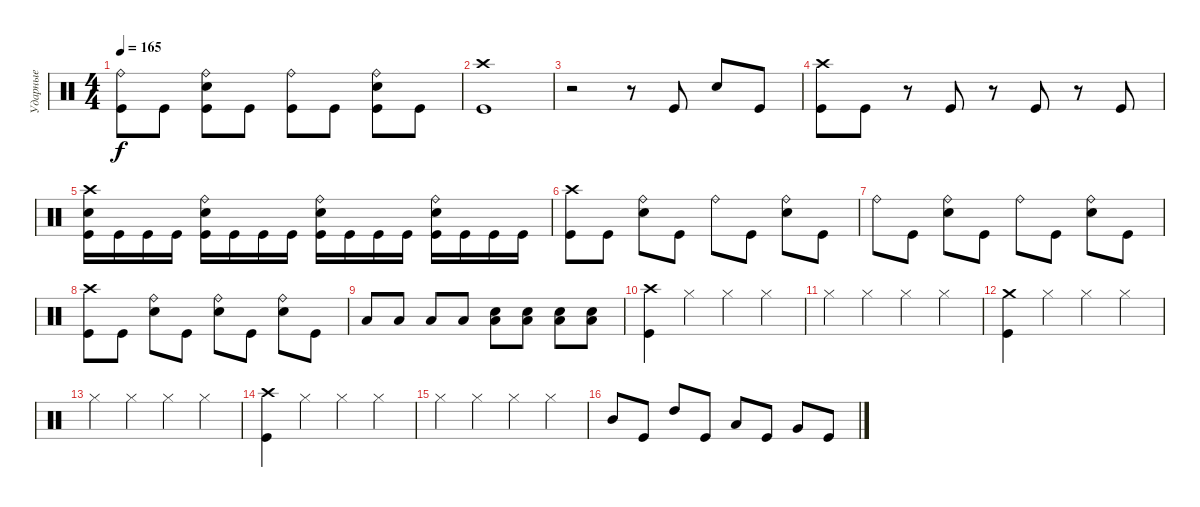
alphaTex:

\track ("Ударные" "Ударные") {instrument percussion}
\staff {score}
\articulation defaults
\ts (4 4)
\tempo 165
\clef neutral
\ks c
("Ride (bell)" "Kick (hit)").8{dy f} "Kick (hit)".8 ("Ride (bell)" "Electric Snare (hit)" "Kick (hit)").8 "Kick (hit)".8 ("Ride (bell)" "Kick (hit)").8 "Kick (hit)".8 ("Ride (bell)" "Electric Snare (hit)" "Kick (hit)").8 "Kick (hit)".8 |
("Crash high (hit)" "Kick (hit)").1 |
r.2 r.8 "Kick (hit)".8 "Electric Snare (hit)".8 "Kick (hit)".8 |
("Crash high (hit)" "Kick (hit)").8 "Kick (hit)".8 r.8 "Kick (hit)".8 r.8 "Kick (hit)".8 r.8 "Kick (hit)".8 |
("Crash high (hit)" "Electric Snare (hit)" "Kick (hit)").16 "Kick (hit)".16 "Kick (hit)".16 "Kick (hit)".16 ("Ride (bell)" "Electric Snare (hit)" "Kick (hit)").16 "Kick (hit)".16 "Kick (hit)".16 "Kick (hit)".16 ("Ride (bell)" "Electric Snare (hit)" "Kick (hit)").16 "Kick (hit)".16 "Kick (hit)".16 "Kick (hit)".16 ("Ride (bell)" "Electric Snare (hit)" "Kick (hit)").16 "Kick (hit)".16 "Kick (hit)".16 "Kick (hit)".16 |
("Crash high (hit)" "Kick (hit)").8 "Kick (hit)".8 ("Ride (bell)" "Electric Snare (hit)").8 "Kick (hit)".8 "Ride (bell)".8 "Kick (hit)".8 ("Ride (bell)" "Electric Snare (hit)").8 "Kick (hit)".8 |
"Ride (bell)".8 "Kick (hit)".8 ("Ride (bell)" "Electric Snare (hit)").8 "Kick (hit)".8 "Ride (bell)".8 "Kick (hit)".8 ("Ride (bell)" "Electric Snare (hit)").8 "Kick (hit)".8 |
("Crash high (hit)" "Kick (hit)").8 "Kick (hit)".8 ("Ride (bell)" "Electric Snare (hit)").8 "Kick (hit)".8 ("Ride (bell)" "Electric Snare (hit)").8 "Kick (hit)".8 ("Ride (bell)" "Electric Snare (hit)").8 "Kick (hit)".8 |
"Low Tom (hit)".8 "Low Tom (hit)".8 "Low Tom (hit)".8 "Low Tom (hit)".8 ("Electric Snare (hit)" "Low Tom (hit)").8 ("Electric Snare (hit)" "Low Tom (hit)").8 ("Electric Snare (hit)" "Low Tom (hit)").8 ("Electric Snare (hit)" "Low Tom (hit)").8 |
("Crash high (hit)" "Kick (hit)").4 "Hi-Hat (closed)".4 "Hi-Hat (closed)".4 "Hi-Hat (closed)".4 |
"Hi-Hat (closed)".4 "Hi-Hat (closed)".4 "Hi-Hat (closed)".4 "Hi-Hat (closed)".4 |
("Crash medium (hit)" "Kick (hit)").4 "Hi-Hat (closed)".4 "Hi-Hat (closed)".4 "Hi-Hat (closed)".4 |
"Hi-Hat (closed)".4 "Hi-Hat (closed)".4 "Hi-Hat (closed)".4 "Hi-Hat (closed)".4 |
("Crash high (hit)" "Kick (hit)").4 "Hi-Hat (closed)".4 "Hi-Hat (closed)".4 "Hi-Hat (closed)".4 |
"Hi-Hat (closed)".4 "Hi-Hat (closed)".4 "Hi-Hat (closed)".4 "Hi-Hat (closed)".4 |
"Mid Tom (hit)".8 "Kick (hit)".8 "High Tom (hit)".8 "Kick (hit)".8 "Low Tom (hit)".8 "Kick (hit)".8 "Very Low Tom (hit)".8 "Kick (hit)".8
